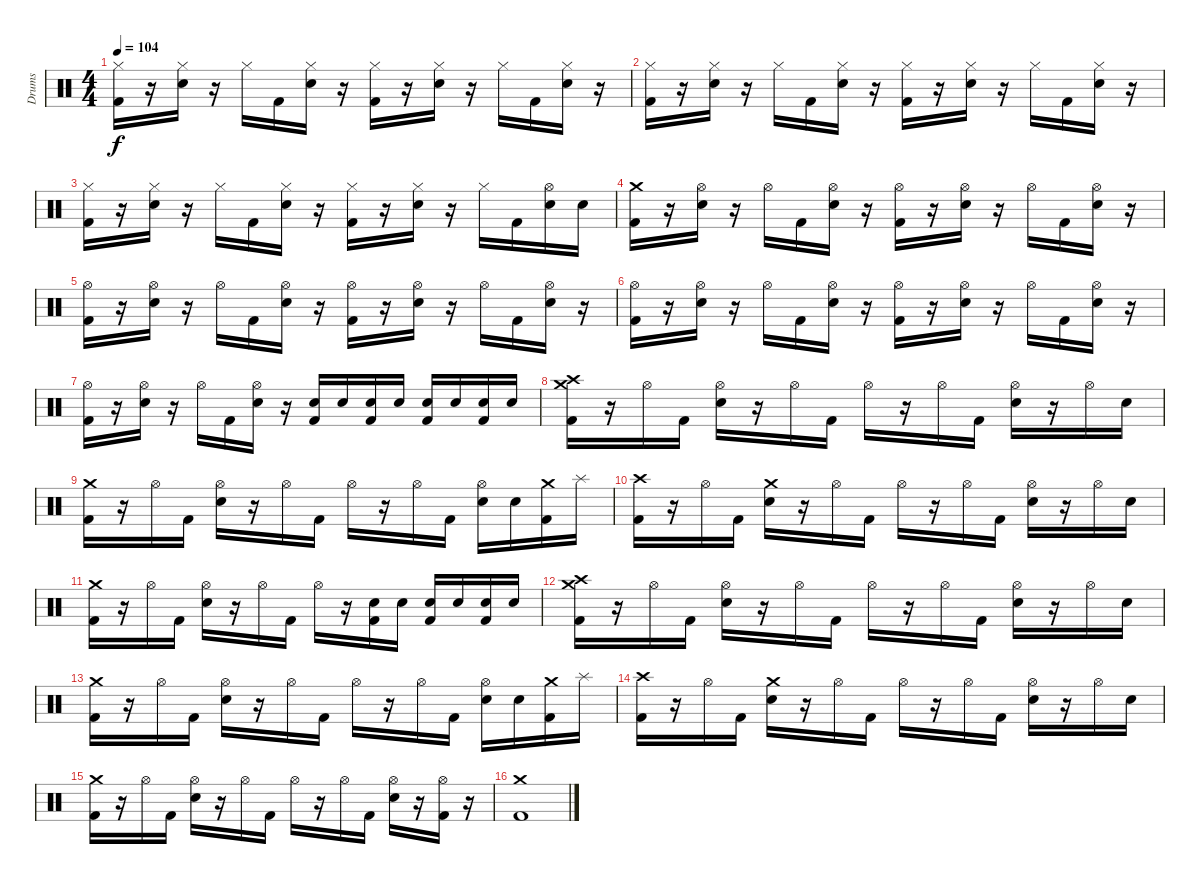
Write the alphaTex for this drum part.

\track ("Drums" "Drums") {instrument percussion}
\staff {score}
\articulation defaults
\ts (4 4)
\tempo 104
\clef neutral
\ks c
("Hi-Hat (closed)" "Kick (hit) 2").16{dy f} r.16 ("Hi-Hat (closed)" "Snare (hit) 2").16 r.16 "Hi-Hat (closed)".16 "Kick (hit) 2".16 ("Hi-Hat (closed)" "Snare (hit) 2").16 r.16 ("Hi-Hat (closed)" "Kick (hit) 2").16 r.16 ("Hi-Hat (closed)" "Snare (hit) 2").16 r.16 "Hi-Hat (closed)".16 "Kick (hit) 2".16 ("Hi-Hat (closed)" "Snare (hit) 2").16 r.16 |
("Hi-Hat (closed)" "Kick (hit) 2").16 r.16 ("Hi-Hat (closed)" "Snare (hit) 2").16 r.16 "Hi-Hat (closed)".16 "Kick (hit) 2".16 ("Hi-Hat (closed)" "Snare (hit) 2").16 r.16 ("Hi-Hat (closed)" "Kick (hit) 2").16 r.16 ("Hi-Hat (closed)" "Snare (hit) 2").16 r.16 "Hi-Hat (closed)".16 "Kick (hit) 2".16 ("Hi-Hat (closed)" "Snare (hit) 2").16 r.16 |
("Hi-Hat (closed)" "Kick (hit) 2").16 r.16 ("Hi-Hat (closed)" "Snare (hit) 2").16 r.16 "Hi-Hat (closed)".16 "Kick (hit) 2".16 ("Hi-Hat (closed)" "Snare (hit) 2").16 r.16 ("Hi-Hat (closed)" "Kick (hit) 2").16 r.16 ("Hi-Hat (closed)" "Snare (hit) 2").16 r.16 "Hi-Hat (closed)".16 "Kick (hit) 2".16 ("Hi-Hat (open)" "Snare (hit) 2").16 "Snare (hit) 2".16 |
("Crash medium (hit)" "Kick (hit) 2").16 r.16 ("Hi-Hat (open)" "Snare (hit) 2").16 r.16 "Hi-Hat (open)".16 "Kick (hit) 2".16 ("Hi-Hat (open)" "Snare (hit) 2").16 r.16 ("Hi-Hat (open)" "Kick (hit) 2").16 r.16 ("Hi-Hat (open)" "Snare (hit) 2").16 r.16 "Hi-Hat (open)".16 "Kick (hit) 2".16 ("Hi-Hat (open)" "Snare (hit) 2").16 r.16 |
("Hi-Hat (open)" "Kick (hit) 2").16 r.16 ("Hi-Hat (open)" "Snare (hit) 2").16 r.16 "Hi-Hat (open)".16 "Kick (hit) 2".16 ("Hi-Hat (open)" "Snare (hit) 2").16 r.16 ("Hi-Hat (open)" "Kick (hit) 2").16 r.16 ("Hi-Hat (open)" "Snare (hit) 2").16 r.16 "Hi-Hat (open)".16 "Kick (hit) 2".16 ("Hi-Hat (open)" "Snare (hit) 2").16 r.16 |
("Hi-Hat (open)" "Kick (hit) 2").16 r.16 ("Hi-Hat (open)" "Snare (hit) 2").16 r.16 "Hi-Hat (open)".16 "Kick (hit) 2".16 ("Hi-Hat (open)" "Snare (hit) 2").16 r.16 ("Hi-Hat (open)" "Kick (hit) 2").16 r.16 ("Hi-Hat (open)" "Snare (hit) 2").16 r.16 "Hi-Hat (open)".16 "Kick (hit) 2".16 ("Hi-Hat (open)" "Snare (hit) 2").16 r.16 |
("Hi-Hat (open)" "Kick (hit) 2").16 r.16 ("Hi-Hat (open)" "Snare (hit) 2").16 r.16 "Hi-Hat (open)".16 "Kick (hit) 2".16 ("Hi-Hat (open)" "Snare (hit) 2").16 r.16 ("Snare (hit) 2" "Kick (hit) 2").16 "Snare (hit) 2".16 ("Snare (hit) 2" "Kick (hit) 2").16 "Snare (hit) 2".16 ("Snare (hit) 2" "Kick (hit) 2").16 "Snare (hit) 2".16 ("Snare (hit) 2" "Kick (hit) 2").16 "Snare (hit) 2".16 |
("Crash high (hit)" "Crash medium (hit)" "Kick (hit) 2").16 r.16 "Hi-Hat (open)".16 "Kick (hit) 2".16 ("Hi-Hat (open)" "Snare (hit) 2").16 r.16 "Hi-Hat (open)".16 "Kick (hit) 2".16 "Hi-Hat (open)".16 r.16 "Hi-Hat (open)".16 "Kick (hit) 2".16 ("Hi-Hat (open)" "Snare (hit) 2").16 r.16 "Hi-Hat (open)".16 "Snare (hit) 2".16 |
("Crash medium (hit)" "Kick (hit) 2").16 r.16 "Hi-Hat (open)".16 "Kick (hit) 2".16 ("Hi-Hat (open)" "Snare (hit) 2").16 r.16 "Hi-Hat (open)".16 "Kick (hit) 2".16 "Hi-Hat (open)".16 r.16 "Hi-Hat (open)".16 "Kick (hit) 2".16 ("Hi-Hat (open)" "Snare (hit) 2").16 "Snare (hit) 2".16 ("Crash medium (hit)" "Kick (hit) 2").16 "Splash (hit)".16 |
("Crash high (hit)" "Kick (hit) 2").16 r.16 "Hi-Hat (open)".16 "Kick (hit) 2".16 ("Crash medium (hit)" "Snare (hit) 2").16 r.16 "Hi-Hat (open)".16 "Kick (hit) 2".16 "Hi-Hat (open)".16 r.16 "Hi-Hat (open)".16 "Kick (hit) 2".16 ("Hi-Hat (open)" "Snare (hit) 2").16 r.16 "Hi-Hat (open)".16 "Snare (hit) 2".16 |
("Crash medium (hit)" "Kick (hit) 2").16 r.16 "Hi-Hat (open)".16 "Kick (hit) 2".16 ("Hi-Hat (open)" "Snare (hit) 2").16 r.16 "Hi-Hat (open)".16 "Kick (hit) 2".16 "Hi-Hat (open)".16 r.16 ("Snare (hit) 2" "Kick (hit) 2").16 "Snare (hit) 2".16 ("Snare (hit) 2" "Kick (hit) 2").16 "Snare (hit) 2".16 ("Snare (hit) 2" "Kick (hit) 2").16 "Snare (hit) 2".16 |
("Crash high (hit)" "Crash medium (hit)" "Kick (hit) 2").16 r.16 "Hi-Hat (open)".16 "Kick (hit) 2".16 ("Hi-Hat (open)" "Snare (hit) 2").16 r.16 "Hi-Hat (open)".16 "Kick (hit) 2".16 "Hi-Hat (open)".16 r.16 "Hi-Hat (open)".16 "Kick (hit) 2".16 ("Hi-Hat (open)" "Snare (hit) 2").16 r.16 "Hi-Hat (open)".16 "Snare (hit) 2".16 |
("Crash medium (hit)" "Kick (hit) 2").16 r.16 "Hi-Hat (open)".16 "Kick (hit) 2".16 ("Hi-Hat (open)" "Snare (hit) 2").16 r.16 "Hi-Hat (open)".16 "Kick (hit) 2".16 "Hi-Hat (open)".16 r.16 "Hi-Hat (open)".16 "Kick (hit) 2".16 ("Hi-Hat (open)" "Snare (hit) 2").16 "Snare (hit) 2".16 ("Crash medium (hit)" "Kick (hit) 2").16 "Splash (hit)".16 |
("Crash high (hit)" "Kick (hit) 2").16 r.16 "Hi-Hat (open)".16 "Kick (hit) 2".16 ("Crash medium (hit)" "Snare (hit) 2").16 r.16 "Hi-Hat (open)".16 "Kick (hit) 2".16 "Hi-Hat (open)".16 r.16 "Hi-Hat (open)".16 "Kick (hit) 2".16 ("Hi-Hat (open)" "Snare (hit) 2").16 r.16 "Hi-Hat (open)".16 "Snare (hit) 2".16 |
("Crash medium (hit)" "Kick (hit) 2").16 r.16 "Hi-Hat (open)".16 "Kick (hit) 2".16 ("Hi-Hat (open)" "Snare (hit) 2").16 r.16 "Hi-Hat (open)".16 "Kick (hit) 2".16 "Hi-Hat (open)".16 r.16 "Hi-Hat (open)".16 "Kick (hit) 2".16 ("Hi-Hat (open)" "Snare (hit) 2").16 r.16 ("Hi-Hat (open)" "Kick (hit) 2").16 r.16 |
("Crash medium (hit)" "Kick (hit) 2").1
